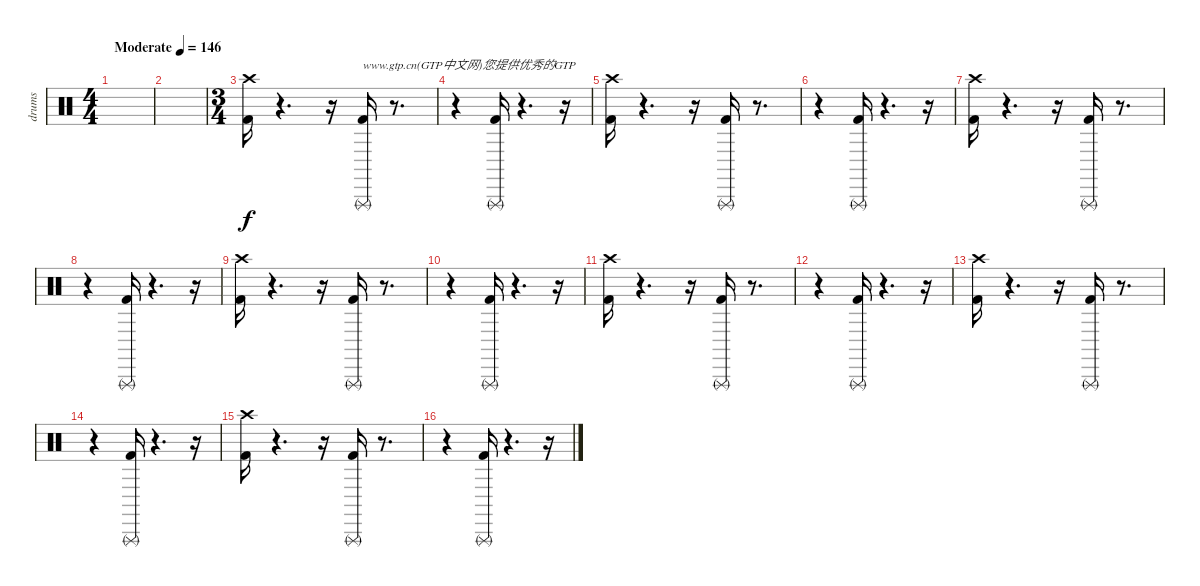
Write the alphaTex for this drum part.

\track ("drums" "drums") {instrument percussion}
\staff {score}
\articulation defaults
\ts (4 4)
\tempo (146 "Moderate")
\clef neutral
\ks c
|
|
\ts (3 4)
("Crash high (hit)" "Kick (hit) 2").16 r.4{d} r.16 ("Kick (hit) 2" "Triangle (rnute)").16{txt "www.gtp.cn(GTP中文网)您提供优秀的GTP"} r.8{d} |
r.4 ("Kick (hit) 2" "Triangle (rnute)").16 r.4{d} r.16 |
("Crash high (hit)" "Kick (hit) 2").16 r.4{d} r.16 ("Kick (hit) 2" "Triangle (rnute)").16 r.8{d} |
r.4 ("Kick (hit) 2" "Triangle (rnute)").16 r.4{d} r.16 |
("Crash high (hit)" "Kick (hit) 2").16 r.4{d} r.16 ("Kick (hit) 2" "Triangle (rnute)").16 r.8{d} |
r.4 ("Kick (hit) 2" "Triangle (rnute)").16 r.4{d} r.16 |
("Crash high (hit)" "Kick (hit) 2").16 r.4{d} r.16 ("Kick (hit) 2" "Triangle (rnute)").16 r.8{d} |
r.4 ("Kick (hit) 2" "Triangle (rnute)").16 r.4{d} r.16 |
("Crash high (hit)" "Kick (hit) 2").16 r.4{d} r.16 ("Kick (hit) 2" "Triangle (rnute)").16 r.8{d} |
r.4 ("Kick (hit) 2" "Triangle (rnute)").16 r.4{d} r.16 |
("Crash high (hit)" "Kick (hit) 2").16 r.4{d} r.16 ("Kick (hit) 2" "Triangle (rnute)").16 r.8{d} |
r.4 ("Kick (hit) 2" "Triangle (rnute)").16 r.4{d} r.16 |
("Crash high (hit)" "Kick (hit) 2").16 r.4{d} r.16 ("Kick (hit) 2" "Triangle (rnute)").16 r.8{d} |
r.4 ("Kick (hit) 2" "Triangle (rnute)").16 r.4{d} r.16
